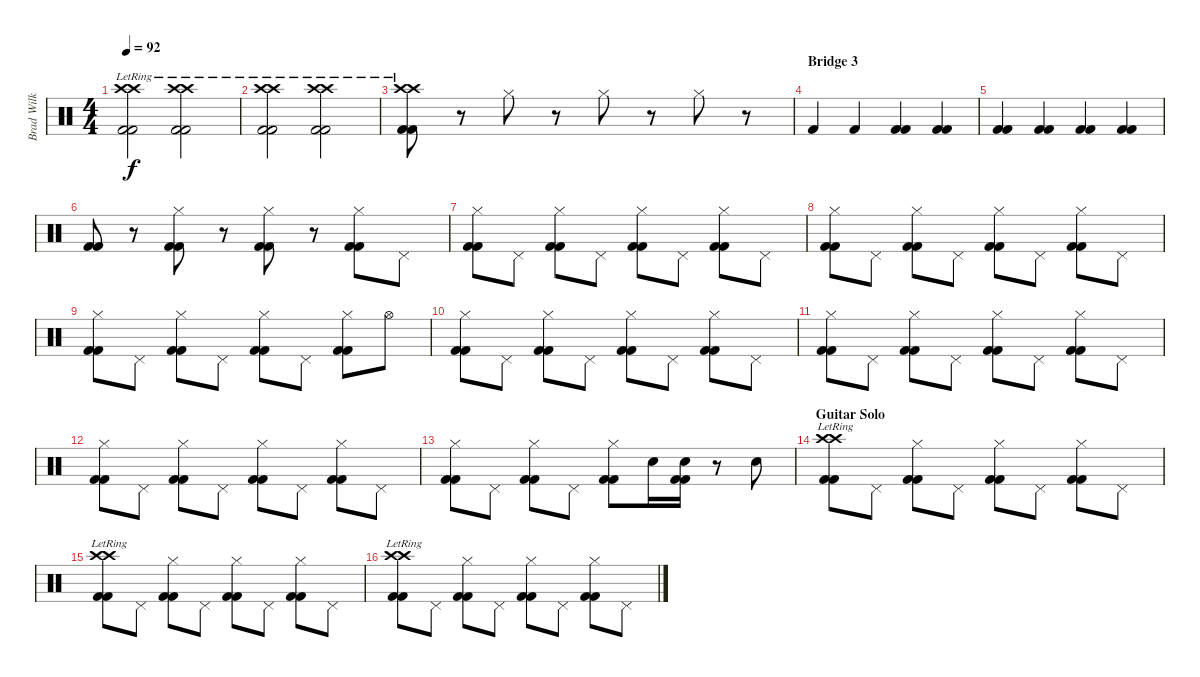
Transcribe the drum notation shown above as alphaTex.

\track ("Brad Wilk" "Brad Wilk") {instrument percussion}
\staff {score}
\articulation defaults
\ts (4 4)
\tempo 92
\clef neutral
\ks c
("Crash high (hit)"{lr} "Crash high (hit)"{lr} "Kick (hit) 2" "Kick (hit) 2").2{dy f} ("Crash high (hit)"{lr} "Crash high (hit)"{lr} "Kick (hit) 2" "Kick (hit) 2").2 |
("Crash high (hit)"{lr} "Crash high (hit)"{lr} "Kick (hit) 2" "Kick (hit) 2").2 ("Crash high (hit)"{lr} "Crash high (hit)"{lr} "Kick (hit) 2" "Kick (hit) 2").2 |
("Crash high (hit)"{lr} "Crash high (hit)"{lr} "Kick (hit) 2" "Kick (hit) 2").8 r.8 "Hi-Hat (closed)".8 r.8 "Hi-Hat (closed)".8 r.8 "Hi-Hat (closed)".8 r.8 |
\section ("" "Bridge 3")
"Kick (hit) 2".4 "Kick (hit) 2".4 ("Kick (hit) 2" "Kick (hit) 2").4 ("Kick (hit) 2" "Kick (hit) 2").4 |
("Kick (hit) 2" "Kick (hit) 2").4 ("Kick (hit) 2" "Kick (hit) 2").4 ("Kick (hit) 2" "Kick (hit) 2").4 ("Kick (hit) 2" "Kick (hit) 2").4 |
("Kick (hit) 2" "Kick (hit) 2").8 r.8 ("Hi-Hat (closed)" "Kick (hit) 2" "Kick (hit) 2").8 r.8 ("Hi-Hat (closed)" "Kick (hit) 2" "Kick (hit) 2").8 r.8 ("Hi-Hat (closed)" "Kick (hit) 2" "Kick (hit) 2").8 "Pedal Hi-Hat (hit)".8 |
("Hi-Hat (closed)" "Kick (hit) 2" "Kick (hit) 2").8 "Pedal Hi-Hat (hit)".8 ("Hi-Hat (closed)" "Kick (hit) 2" "Kick (hit) 2").8 "Pedal Hi-Hat (hit)".8 ("Hi-Hat (closed)" "Kick (hit) 2" "Kick (hit) 2").8 "Pedal Hi-Hat (hit)".8 ("Hi-Hat (closed)" "Kick (hit) 2" "Kick (hit) 2").8 "Pedal Hi-Hat (hit)".8 |
("Hi-Hat (closed)" "Kick (hit) 2" "Kick (hit) 2").8 "Pedal Hi-Hat (hit)".8 ("Hi-Hat (closed)" "Kick (hit) 2" "Kick (hit) 2").8 "Pedal Hi-Hat (hit)".8 ("Hi-Hat (closed)" "Kick (hit) 2" "Kick (hit) 2").8 "Pedal Hi-Hat (hit)".8 ("Hi-Hat (closed)" "Kick (hit) 2" "Kick (hit) 2").8 "Pedal Hi-Hat (hit)".8 |
("Hi-Hat (closed)" "Kick (hit) 2" "Kick (hit) 2").8 "Pedal Hi-Hat (hit)".8 ("Hi-Hat (closed)" "Kick (hit) 2" "Kick (hit) 2").8 "Pedal Hi-Hat (hit)".8 ("Hi-Hat (closed)" "Kick (hit) 2" "Kick (hit) 2").8 "Pedal Hi-Hat (hit)".8 ("Hi-Hat (closed)" "Kick (hit) 2" "Kick (hit) 2").8 "Hi-Hat (open)".8 |
("Hi-Hat (closed)" "Kick (hit) 2" "Kick (hit) 2").8 "Pedal Hi-Hat (hit)".8 ("Hi-Hat (closed)" "Kick (hit) 2" "Kick (hit) 2").8 "Pedal Hi-Hat (hit)".8 ("Hi-Hat (closed)" "Kick (hit) 2" "Kick (hit) 2").8 "Pedal Hi-Hat (hit)".8 ("Hi-Hat (closed)" "Kick (hit) 2" "Kick (hit) 2").8 "Pedal Hi-Hat (hit)".8 |
("Hi-Hat (closed)" "Kick (hit) 2" "Kick (hit) 2").8 "Pedal Hi-Hat (hit)".8 ("Hi-Hat (closed)" "Kick (hit) 2" "Kick (hit) 2").8 "Pedal Hi-Hat (hit)".8 ("Hi-Hat (closed)" "Kick (hit) 2" "Kick (hit) 2").8 "Pedal Hi-Hat (hit)".8 ("Hi-Hat (closed)" "Kick (hit) 2" "Kick (hit) 2").8 "Pedal Hi-Hat (hit)".8 |
("Hi-Hat (closed)" "Kick (hit) 2" "Kick (hit) 2").8 "Pedal Hi-Hat (hit)".8 ("Hi-Hat (closed)" "Kick (hit) 2" "Kick (hit) 2").8 "Pedal Hi-Hat (hit)".8 ("Hi-Hat (closed)" "Kick (hit) 2" "Kick (hit) 2").8 "Pedal Hi-Hat (hit)".8 ("Hi-Hat (closed)" "Kick (hit) 2" "Kick (hit) 2").8 "Pedal Hi-Hat (hit)".8 |
("Hi-Hat (closed)" "Kick (hit) 2" "Kick (hit) 2").8 "Pedal Hi-Hat (hit)".8 ("Hi-Hat (closed)" "Kick (hit) 2" "Kick (hit) 2").8 "Pedal Hi-Hat (hit)".8 ("Hi-Hat (closed)" "Kick (hit) 2" "Kick (hit) 2").8 "Electric Snare (hit)".16 ("Electric Snare (hit)" "Kick (hit) 2" "Kick (hit) 2").16 r.8 "Electric Snare (hit)".8 |
\section ("" "Guitar Solo")
("Crash high (hit)"{lr} "Crash high (hit)"{lr} "Kick (hit) 2" "Kick (hit) 2").8 "Pedal Hi-Hat (hit)".8 ("Hi-Hat (closed)" "Kick (hit) 2" "Kick (hit) 2").8 "Pedal Hi-Hat (hit)".8 ("Hi-Hat (closed)" "Kick (hit) 2" "Kick (hit) 2").8 "Pedal Hi-Hat (hit)".8 ("Hi-Hat (closed)" "Kick (hit) 2" "Kick (hit) 2").8 "Pedal Hi-Hat (hit)".8 |
("Crash high (hit)"{lr} "Crash high (hit)"{lr} "Kick (hit) 2" "Kick (hit) 2").8 "Pedal Hi-Hat (hit)".8 ("Hi-Hat (closed)" "Kick (hit) 2" "Kick (hit) 2").8 "Pedal Hi-Hat (hit)".8 ("Hi-Hat (closed)" "Kick (hit) 2" "Kick (hit) 2").8 "Pedal Hi-Hat (hit)".8 ("Hi-Hat (closed)" "Kick (hit) 2" "Kick (hit) 2").8 "Pedal Hi-Hat (hit)".8 |
("Crash high (hit)"{lr} "Crash high (hit)"{lr} "Kick (hit) 2" "Kick (hit) 2").8 "Pedal Hi-Hat (hit)".8 ("Hi-Hat (closed)" "Kick (hit) 2" "Kick (hit) 2").8 "Pedal Hi-Hat (hit)".8 ("Hi-Hat (closed)" "Kick (hit) 2" "Kick (hit) 2").8 "Pedal Hi-Hat (hit)".8 ("Hi-Hat (closed)" "Kick (hit) 2" "Kick (hit) 2").8 "Pedal Hi-Hat (hit)".8
